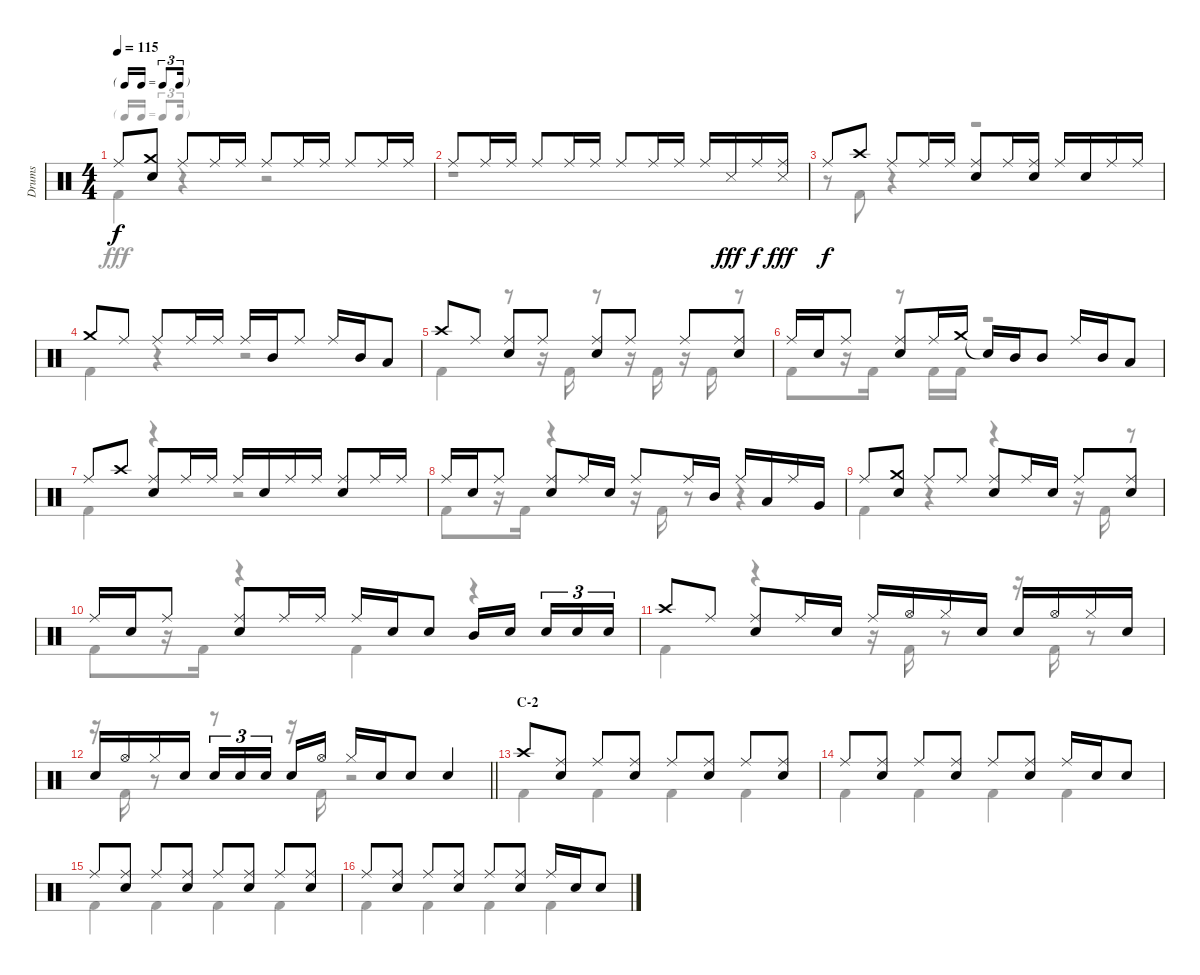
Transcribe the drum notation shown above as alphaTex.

\track ("Drums" "Drums") {instrument percussion}
\staff {score}
\articulation defaults
\voice
\ts (4 4)
\tf triplet16th
\tempo 115
\clef neutral
\ks c "Ride (middle)".8{dy f}
("Crash medium (hit)" "Snare (hit) 2").8 "Ride (middle)".8 "Ride (middle)".16 "Ride (middle)".16 "Ride (middle)".8 "Ride (middle)".16 "Ride (middle)".16 "Ride (middle)".8 "Ride (middle)".16 "Ride (middle)".16 |
"Ride (middle)".8 "Ride (middle)".16 "Ride (middle)".16 "Ride (middle)".8 "Ride (middle)".16 "Ride (middle)".16 "Ride (middle)".8 "Ride (middle)".16 "Ride (middle)".16 "Ride (middle)".16 "Snare (side stick) 3".16{dy fff} "Ride (middle)".16{dy f} ("Ride (middle)" "Snare (side stick) 3").16{dy fff} |
"Ride (middle)".8{dy f} "Crash high (hit)".8 "Ride (middle)".8 "Ride (middle)".16 "Ride (middle)".16 ("Ride (middle)" "Snare (hit) 2").8 "Ride (middle)".16 ("Ride (middle)" "Snare (hit) 2").16 "Ride (middle)".16 "Snare (hit) 2".16 "Ride (middle)".16 "Ride (middle)".16 |
"Crash medium (hit)".8 "Ride (middle)".8 "Ride (middle)".8 "Ride (middle)".16 "Ride (middle)".16 "Ride (middle)".16 "Mid Tom (hit)".16 "Ride (middle)".8 "Ride (middle)".16 "Mid Tom (hit)".16 "Low Tom (hit)".8 |
"Crash high (hit)".8 "Ride (middle)".8 ("Ride (middle)" "Snare (hit) 2").8 "Ride (middle)".8 ("Ride (middle)" "Snare (hit) 2").8 "Ride (middle)".8 "Ride (middle)".8 ("Ride (middle)" "Snare (hit) 2").8 |
"Ride (middle)".16 "Snare (hit) 2".16 "Ride (middle)".8 ("Ride (middle)" "Snare (hit) 2").8 "Ride (middle)".16 "Crash medium (hit)".16 "Snare (hit)"{t}.16 "Mid Tom (hit)".16 "Mid Tom (hit)".8 "Ride (middle)".16 "Mid Tom (hit)".16 "Low Tom (hit)".8 |
"Ride (middle)".8 "Crash high (hit)".8 ("Ride (middle)" "Snare (hit) 2").8 "Ride (middle)".16 "Ride (middle)".16 "Ride (middle)".16 "Snare (hit) 2".16 "Ride (middle)".16 "Ride (middle)".16 ("Ride (middle)" "Snare (hit) 2").8 "Ride (middle)".16 "Ride (middle)".16 |
"Ride (middle)".16 "Snare (hit) 2".16 "Ride (middle)".8 ("Ride (middle)" "Snare (hit) 2").8 "Ride (middle)".16 "Snare (hit) 2".16 "Ride (middle)".8 "Ride (middle)".16 "Mid Tom (hit)".16 "Ride (middle)".16 "Low Tom (hit)".16 "Ride (middle)".16 "Very Low Tom (hit)".16 |
"Ride (middle)".8 ("Crash medium (hit)" "Snare (hit) 2").8 "Ride (middle)".8 "Ride (middle)".8 ("Ride (middle)" "Snare (hit) 2").8 "Ride (middle)".16 "Snare (hit) 2".16 "Ride (middle)".8 ("Ride (middle)" "Snare (hit) 2").8 |
"Ride (middle)".16 "Snare (hit) 2".16 "Ride (middle)".8 ("Ride (middle)" "Snare (hit) 2").8 "Ride (middle)".16 "Ride (middle)".16 "Ride (middle)".16 "Snare (hit) 2".16 "Snare (hit) 2".8 "Mid Tom (hit)".16 "Snare (hit) 2".16{beam splitsecondary} "Snare (hit) 2".16{tu (3 2)} "Snare (hit) 2".16{tu (3 2)} "Snare (hit) 2".16{tu (3 2)} |
"Crash high (hit)".8 "Ride (middle)".8 ("Ride (middle)" "Snare (hit) 2").8 "Ride (middle)".16 "Snare (hit) 2".16 "Ride (middle)".16 "Hi-Hat (open)".16 "Hi-Hat (closed)".16 "Snare (hit) 2".16 "Snare (hit) 2".16 "Hi-Hat (open)".16 "Hi-Hat (closed)".16 "Snare (hit) 2".16 |
\barLineRight lightlight "Snare (hit) 2".16 "Hi-Hat (open)".16 "Hi-Hat (closed)".16 "Snare (hit) 2".16 "Snare (hit) 2".16{tu (3 2)} "Snare (hit) 2".16{tu (3 2)} "Snare (hit) 2".16{tu (3 2) beam splitsecondary} "Snare (hit) 2".16 "Hi-Hat (open)".16 "Hi-Hat (closed)".16 "Snare (hit) 2".16 "Snare (hit) 2".8 "Snare (hit) 2".4
|
\section ("" "C-2")
"Crash high (hit)".8 ("Ride (middle)" "Snare (hit) 2").8 "Ride (middle)".8 ("Ride (middle)" "Snare (hit) 2").8 "Ride (middle)".8 ("Ride (middle)" "Snare (hit) 2").8 "Ride (middle)".8 ("Ride (middle)" "Snare (hit) 2").8 |
"Ride (middle)".8 ("Ride (middle)" "Snare (hit) 2").8 "Ride (middle)".8 ("Ride (middle)" "Snare (hit) 2").8 "Ride (middle)".8 ("Ride (middle)" "Snare (hit) 2").8 "Ride (middle)".16 "Snare (hit) 2".16 "Snare (hit) 2".8 |
"Ride (middle)".8 ("Ride (middle)" "Snare (hit) 2").8 "Ride (middle)".8 ("Ride (middle)" "Snare (hit) 2").8 "Ride (middle)".8 ("Ride (middle)" "Snare (hit) 2").8 "Ride (middle)".8 ("Ride (middle)" "Snare (hit) 2").8 |
"Ride (middle)".8 ("Ride (middle)" "Snare (hit) 2").8 "Ride (middle)".8 ("Ride (middle)" "Snare (hit) 2").8 "Ride (middle)".8 ("Ride (middle)" "Snare (hit) 2").8 "Ride (middle)".16 "Snare (hit) 2".16 "Snare (hit) 2".8
\voice
\clef neutral
\ottava regular
\simile none
\ks c "Kick (hit) 2".4{dy fff}
r.4 r.2 |
r.1 |
r.8 "Kick (hit) 2".8 r.4 r.2 |
"Kick (hit) 2".4 r.4 r.2 |
"Kick (hit) 2".4 r.8 r.16 "Kick (hit) 2".16 r.8 r.16 "Kick (hit) 2".16 r.16 "Kick (hit) 2".16 r.8 |
"Kick (hit) 2".8 r.16 "Kick (hit) 2".16 r.8 "Kick (hit) 2".16 "Kick (hit) 2".16 r.2 |
"Kick (hit) 2".4 r.4 r.2 |
"Kick (hit) 2".8 r.16 "Kick (hit) 2".16 r.4 r.16 "Kick (hit) 2".16 r.8 r.4 |
"Kick (hit) 2".4 r.4 r.4 r.16 "Kick (hit) 2".16 r.8 |
"Kick (hit) 2".8 r.16 "Kick (hit) 2".16 r.4 "Kick (hit) 2".4 r.4 |
"Kick (hit) 2".4 r.4 r.16 "Kick (hit) 2".16 r.8 r.16 "Kick (hit) 2".16 r.8 |
\barLineRight lightlight
r.16 "Kick (hit) 2".16 r.8 r.8 r.16 "Kick (hit) 2".16 r.2 |
"Kick (hit) 2".4 "Kick (hit) 2".4 "Kick (hit) 2".4 "Kick (hit) 2".4 |
"Kick (hit) 2".4 "Kick (hit) 2".4 "Kick (hit) 2".4 "Kick (hit) 2".4 |
"Kick (hit) 2".4 "Kick (hit) 2".4 "Kick (hit) 2".4 "Kick (hit) 2".4 |
"Kick (hit) 2".4 "Kick (hit) 2".4 "Kick (hit) 2".4 "Kick (hit) 2".4
